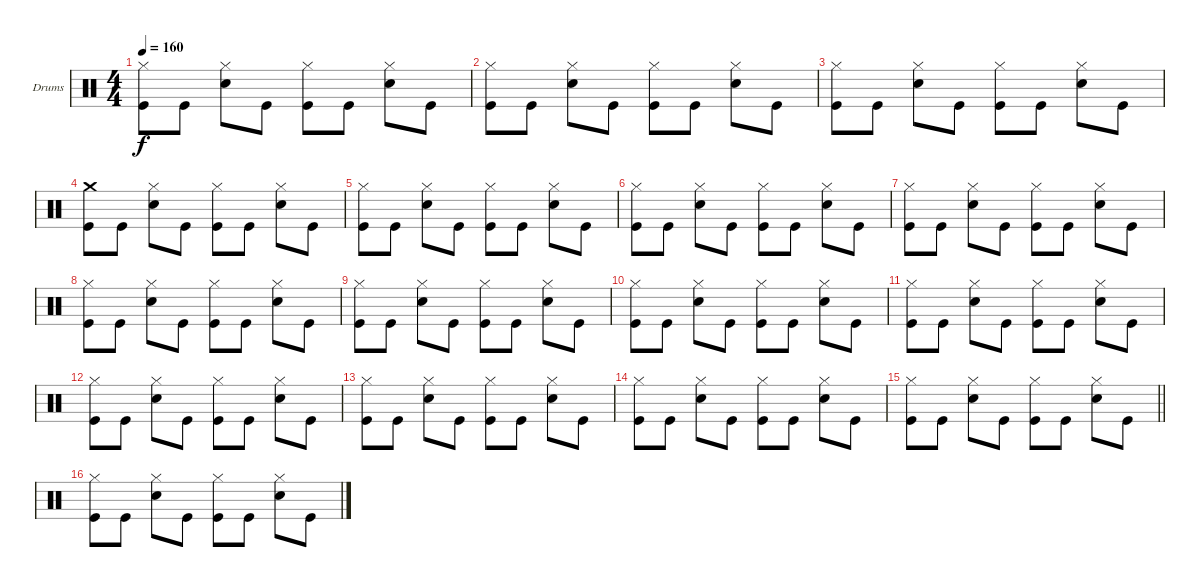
\defaultSystemsLayout 4
\bracketExtendMode groupsimilarinstruments
\firstSystemTrackNameOrientation horizontal
\otherSystemsTrackNameOrientation horizontal
\track ("Drums" "Drums") {instrument percussion}
\staff {score}
\articulation defaults
\ts (4 4)
\tempo 160
\clef neutral
\scale
0.333333
\ks aminor
("Kick (hit)" "Hi-Hat (closed)").8{dy f} "Kick (hit)".8 ("Snare (hit) 2" "Hi-Hat (closed)").8 "Kick (hit)".8 ("Kick (hit)" "Hi-Hat (closed)").8 "Kick (hit)".8 ("Snare (hit) 2" "Hi-Hat (closed)").8 "Kick (hit)".8 |
\scale
0.322034 ("Kick (hit)" "Hi-Hat (closed)").8 "Kick (hit)".8 ("Snare (hit) 2" "Hi-Hat (closed)").8 "Kick (hit)".8 ("Kick (hit)" "Hi-Hat (closed)").8 "Kick (hit)".8 ("Snare (hit) 2" "Hi-Hat (closed)").8 "Kick (hit)".8 |
\scale
0.355932 ("Kick (hit)" "Hi-Hat (closed)").8 "Kick (hit)".8 ("Snare (hit) 2" "Hi-Hat (closed)").8 "Kick (hit)".8 ("Kick (hit)" "Hi-Hat (closed)").8 "Kick (hit)".8 ("Snare (hit) 2" "Hi-Hat (closed)").8 "Kick (hit)".8 |
("Kick (hit)" "Crash medium (hit)").8 "Kick (hit)".8 ("Snare (hit) 2" "Hi-Hat (closed)").8 "Kick (hit)".8 ("Kick (hit)" "Hi-Hat (closed)").8 "Kick (hit)".8 ("Snare (hit) 2" "Hi-Hat (closed)").8 "Kick (hit)".8 |
("Kick (hit)" "Hi-Hat (closed)").8 "Kick (hit)".8 ("Snare (hit) 2" "Hi-Hat (closed)").8 "Kick (hit)".8 ("Kick (hit)" "Hi-Hat (closed)").8 "Kick (hit)".8 ("Snare (hit) 2" "Hi-Hat (closed)").8 "Kick (hit)".8 |
("Kick (hit)" "Hi-Hat (closed)").8 "Kick (hit)".8 ("Snare (hit) 2" "Hi-Hat (closed)").8 "Kick (hit)".8 ("Kick (hit)" "Hi-Hat (closed)").8 "Kick (hit)".8 ("Snare (hit) 2" "Hi-Hat (closed)").8 "Kick (hit)".8 |
("Kick (hit)" "Hi-Hat (closed)").8 "Kick (hit)".8 ("Snare (hit) 2" "Hi-Hat (closed)").8 "Kick (hit)".8 ("Kick (hit)" "Hi-Hat (closed)").8 "Kick (hit)".8 ("Snare (hit) 2" "Hi-Hat (closed)").8 "Kick (hit)".8 |
("Kick (hit)" "Hi-Hat (closed)").8 "Kick (hit)".8 ("Snare (hit) 2" "Hi-Hat (closed)").8 "Kick (hit)".8 ("Kick (hit)" "Hi-Hat (closed)").8 "Kick (hit)".8 ("Snare (hit) 2" "Hi-Hat (closed)").8 "Kick (hit)".8 |
("Kick (hit)" "Hi-Hat (closed)").8 "Kick (hit)".8 ("Snare (hit) 2" "Hi-Hat (closed)").8 "Kick (hit)".8 ("Kick (hit)" "Hi-Hat (closed)").8 "Kick (hit)".8 ("Snare (hit) 2" "Hi-Hat (closed)").8 "Kick (hit)".8 |
("Kick (hit)" "Hi-Hat (closed)").8 "Kick (hit)".8 ("Snare (hit) 2" "Hi-Hat (closed)").8 "Kick (hit)".8 ("Kick (hit)" "Hi-Hat (closed)").8 "Kick (hit)".8 ("Snare (hit) 2" "Hi-Hat (closed)").8 "Kick (hit)".8 |
("Kick (hit)" "Hi-Hat (closed)").8 "Kick (hit)".8 ("Snare (hit) 2" "Hi-Hat (closed)").8 "Kick (hit)".8 ("Kick (hit)" "Hi-Hat (closed)").8 "Kick (hit)".8 ("Snare (hit) 2" "Hi-Hat (closed)").8 "Kick (hit)".8 |
\scale
0.322034 ("Kick (hit)" "Hi-Hat (closed)").8 "Kick (hit)".8 ("Snare (hit) 2" "Hi-Hat (closed)").8 "Kick (hit)".8 ("Kick (hit)" "Hi-Hat (closed)").8 "Kick (hit)".8 ("Snare (hit) 2" "Hi-Hat (closed)").8 "Kick (hit)".8 |
\scale
0.333333 ("Kick (hit)" "Hi-Hat (closed)").8 "Kick (hit)".8 ("Snare (hit) 2" "Hi-Hat (closed)").8 "Kick (hit)".8 ("Kick (hit)" "Hi-Hat (closed)").8 "Kick (hit)".8 ("Snare (hit) 2" "Hi-Hat (closed)").8 "Kick (hit)".8 |
\scale
0.333333 ("Kick (hit)" "Hi-Hat (closed)").8 "Kick (hit)".8 ("Snare (hit) 2" "Hi-Hat (closed)").8 "Kick (hit)".8 ("Kick (hit)" "Hi-Hat (closed)").8 "Kick (hit)".8 ("Snare (hit) 2" "Hi-Hat (closed)").8 "Kick (hit)".8 |
\scale
0.333333
\barLineRight lightlight
("Kick (hit)" "Hi-Hat (closed)").8 "Kick (hit)".8 ("Snare (hit) 2" "Hi-Hat (closed)").8 "Kick (hit)".8 ("Kick (hit)" "Hi-Hat (closed)").8 "Kick (hit)".8 ("Snare (hit) 2" "Hi-Hat (closed)").8 "Kick (hit)".8 |
\scale
0.377049 ("Kick (hit)" "Hi-Hat (closed)").8 "Kick (hit)".8 ("Snare (hit) 2" "Hi-Hat (closed)").8 "Kick (hit)".8 ("Kick (hit)" "Hi-Hat (closed)").8 "Kick (hit)".8 ("Snare (hit) 2" "Hi-Hat (closed)").8 "Kick (hit)".8
